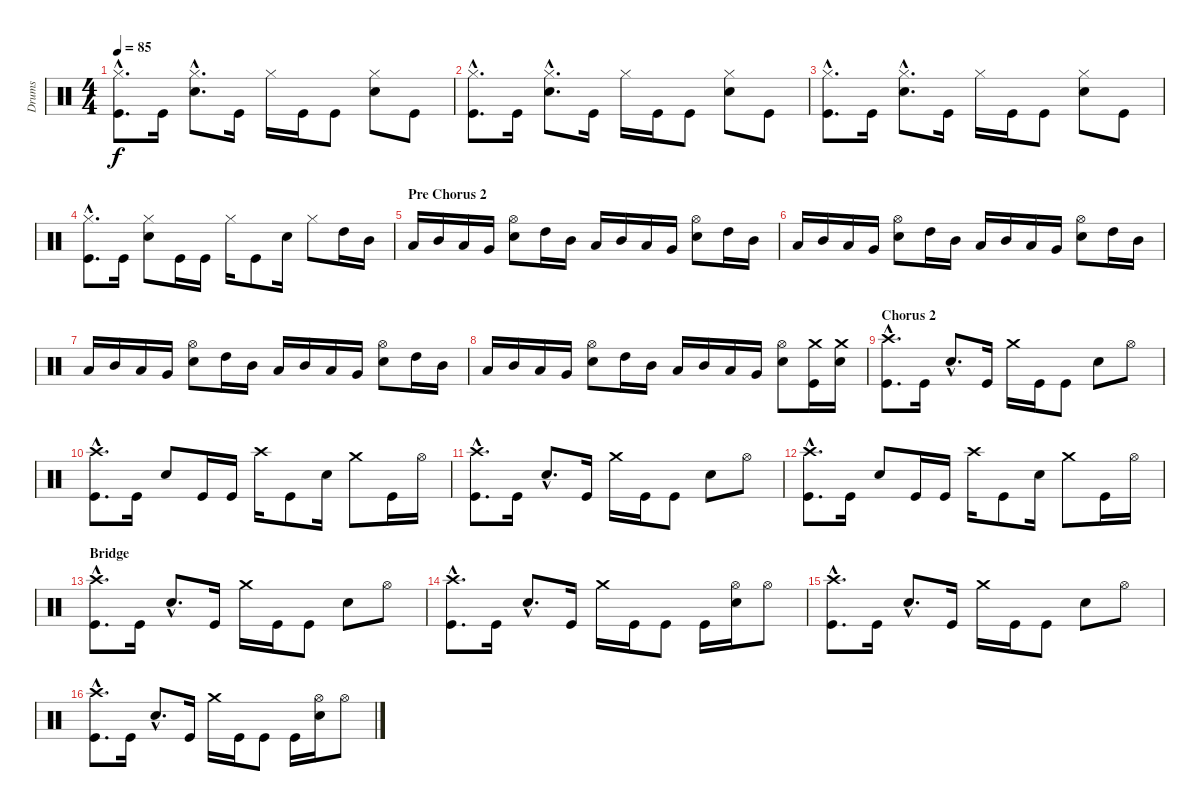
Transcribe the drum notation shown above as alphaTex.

\track ("Drums" "Drums") {instrument percussion}
\staff {score}
\articulation defaults
\ts (4 4)
\tempo 85
\clef neutral
\ks c
("Hi-Hat (closed)"{hac} "Kick (hit)"{hac}).8{d dy f} "Kick (hit)".16 ("Hi-Hat (closed)"{hac} "Electric Snare (hit)"{hac}).8{d} "Kick (hit)".16 "Hi-Hat (closed)".16 "Kick (hit)".16 "Kick (hit)".8 ("Hi-Hat (closed)" "Electric Snare (hit)").8 "Kick (hit)".8 |
("Hi-Hat (closed)"{hac} "Kick (hit)"{hac}).8{d} "Kick (hit)".16 ("Hi-Hat (closed)"{hac} "Electric Snare (hit)"{hac}).8{d} "Kick (hit)".16 "Hi-Hat (closed)".16 "Kick (hit)".16 "Kick (hit)".8 ("Hi-Hat (closed)" "Electric Snare (hit)").8 "Kick (hit)".8 |
("Hi-Hat (closed)"{hac} "Kick (hit)"{hac}).8{d} "Kick (hit)".16 ("Hi-Hat (closed)"{hac} "Electric Snare (hit)"{hac}).8{d} "Kick (hit)".16 "Hi-Hat (closed)".16 "Kick (hit)".16 "Kick (hit)".8 ("Hi-Hat (closed)" "Electric Snare (hit)").8 "Kick (hit)".8 |
("Hi-Hat (closed)"{hac} "Kick (hit)"{hac}).8{d} "Kick (hit)".16 ("Hi-Hat (closed)" "Electric Snare (hit)").8 "Kick (hit)".16 "Kick (hit)".16 "Hi-Hat (closed)".16 "Kick (hit)".8 "Electric Snare (hit)".16 "Hi-Hat (closed)".8 "High Tom (hit)".16 "Mid Tom (hit)".16 |
\section ("" "Pre Chorus 2")
"Low Tom (hit)".16 "Mid Tom (hit)".16 "Low Tom (hit)".16 "Very Low Tom (hit)".16 ("Hi-Hat (open)" "Electric Snare (hit)").8 "High Tom (hit)".16 "Mid Tom (hit)".16 "Low Tom (hit)".16 "Mid Tom (hit)".16 "Low Tom (hit)".16 "Very Low Tom (hit)".16 ("Hi-Hat (open)" "Electric Snare (hit)").8 "High Tom (hit)".16 "Mid Tom (hit)".16 |
"Low Tom (hit)".16 "Mid Tom (hit)".16 "Low Tom (hit)".16 "Very Low Tom (hit)".16 ("Hi-Hat (open)" "Electric Snare (hit)").8 "High Tom (hit)".16 "Mid Tom (hit)".16 "Low Tom (hit)".16 "Mid Tom (hit)".16 "Low Tom (hit)".16 "Very Low Tom (hit)".16 ("Hi-Hat (open)" "Electric Snare (hit)").8 "High Tom (hit)".16 "Mid Tom (hit)".16 |
"Low Tom (hit)".16 "Mid Tom (hit)".16 "Low Tom (hit)".16 "Very Low Tom (hit)".16 ("Hi-Hat (open)" "Electric Snare (hit)").8 "High Tom (hit)".16 "Mid Tom (hit)".16 "Low Tom (hit)".16 "Mid Tom (hit)".16 "Low Tom (hit)".16 "Very Low Tom (hit)".16 ("Hi-Hat (open)" "Electric Snare (hit)").8 "High Tom (hit)".16 "Mid Tom (hit)".16 |
"Low Tom (hit)".16 "Mid Tom (hit)".16 "Low Tom (hit)".16 "Very Low Tom (hit)".16 ("Hi-Hat (open)" "Electric Snare (hit)").8 "High Tom (hit)".16 "Mid Tom (hit)".16 "Low Tom (hit)".16 "Mid Tom (hit)".16 "Low Tom (hit)".16 "Very Low Tom (hit)".16 ("Hi-Hat (open)" "Electric Snare (hit)").8 ("Crash medium (hit)" "Kick (hit)").16 ("Crash medium (hit)" "Electric Snare (hit)").16 |
\section ("" "Chorus 2")
("Crash high (hit)"{hac} "Kick (hit)"{hac}).8{d} "Kick (hit)".16 "Electric Snare (hit)"{hac}.8{d} "Kick (hit)".16 "Crash medium (hit)".16 "Kick (hit)".16 "Kick (hit)".8 "Electric Snare (hit)".8 "Hi-Hat (open)".8 |
("Crash high (hit)"{hac} "Kick (hit)"{hac}).8{d} "Kick (hit)".16 "Electric Snare (hit)".8 "Kick (hit)".16 "Kick (hit)".16 "Crash high (hit)".16 "Kick (hit)".8 "Electric Snare (hit)".16 "Crash medium (hit)".8 "Kick (hit)".16 "Hi-Hat (open)".16 |
("Crash high (hit)"{hac} "Kick (hit)"{hac}).8{d} "Kick (hit)".16 "Electric Snare (hit)"{hac}.8{d} "Kick (hit)".16 "Crash medium (hit)".16 "Kick (hit)".16 "Kick (hit)".8 "Electric Snare (hit)".8 "Hi-Hat (open)".8 |
("Crash high (hit)"{hac} "Kick (hit)"{hac}).8{d} "Kick (hit)".16 "Electric Snare (hit)".8 "Kick (hit)".16 "Kick (hit)".16 "Crash high (hit)".16 "Kick (hit)".8 "Electric Snare (hit)".16 "Crash medium (hit)".8 "Kick (hit)".16 "Hi-Hat (open)".16 |
\section ("" "Bridge")
("Crash high (hit)"{hac} "Kick (hit)"{hac}).8{d} "Kick (hit)".16 "Electric Snare (hit)"{hac}.8{d} "Kick (hit)".16 "Crash medium (hit)".16 "Kick (hit)".16 "Kick (hit)".8 "Electric Snare (hit)".8 "Hi-Hat (open)".8 |
("Crash high (hit)"{hac} "Kick (hit)"{hac}).8{d} "Kick (hit)".16 "Electric Snare (hit)"{hac}.8{d} "Kick (hit)".16 "Crash medium (hit)".16 "Kick (hit)".16 "Kick (hit)".8 "Kick (hit)".16 ("Hi-Hat (open)" "Electric Snare (hit)").16 "Hi-Hat (open)".8 |
("Crash high (hit)"{hac} "Kick (hit)"{hac}).8{d} "Kick (hit)".16 "Electric Snare (hit)"{hac}.8{d} "Kick (hit)".16 "Crash medium (hit)".16 "Kick (hit)".16 "Kick (hit)".8 "Electric Snare (hit)".8 "Hi-Hat (open)".8 |
("Crash high (hit)"{hac} "Kick (hit)"{hac}).8{d} "Kick (hit)".16 "Electric Snare (hit)"{hac}.8{d} "Kick (hit)".16 "Crash medium (hit)".16 "Kick (hit)".16 "Kick (hit)".8 "Kick (hit)".16 ("Hi-Hat (open)" "Electric Snare (hit)").16 "Hi-Hat (open)".8
